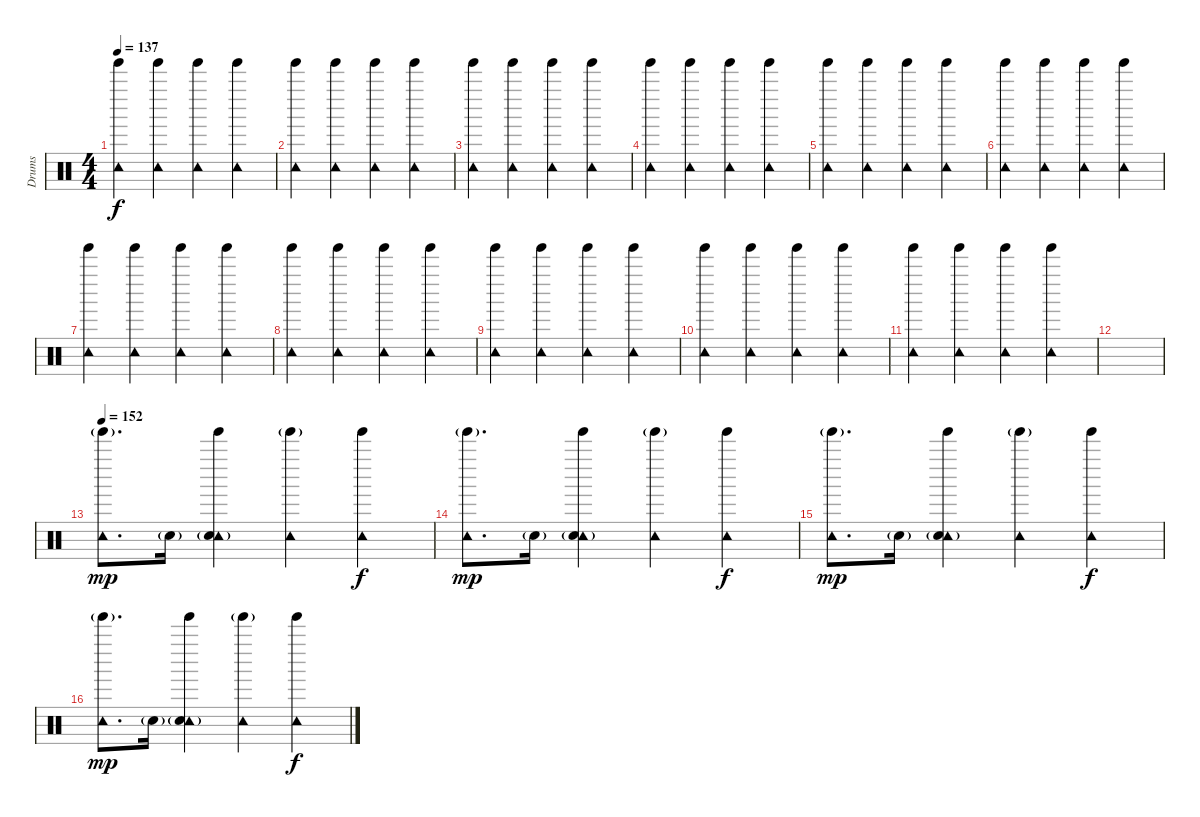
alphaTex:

\track ("Drums" "Drums") {instrument percussion}
\staff {score}
\articulation defaults
\ts (4 4)
\tempo 137
\clef neutral
\ks c
("Tambourine (hit)" "Tinkle Bell (hit)").4{dy f} ("Tambourine (hit)" "Tinkle Bell (hit)").4 ("Tambourine (hit)" "Tinkle Bell (hit)").4 ("Tambourine (hit)" "Tinkle Bell (hit)").4 |
("Tambourine (hit)" "Tinkle Bell (hit)").4 ("Tambourine (hit)" "Tinkle Bell (hit)").4 ("Tambourine (hit)" "Tinkle Bell (hit)").4 ("Tambourine (hit)" "Tinkle Bell (hit)").4 |
("Tambourine (hit)" "Tinkle Bell (hit)").4 ("Tambourine (hit)" "Tinkle Bell (hit)").4 ("Tambourine (hit)" "Tinkle Bell (hit)").4 ("Tambourine (hit)" "Tinkle Bell (hit)").4 |
("Tambourine (hit)" "Tinkle Bell (hit)").4 ("Tambourine (hit)" "Tinkle Bell (hit)").4 ("Tambourine (hit)" "Tinkle Bell (hit)").4 ("Tambourine (hit)" "Tinkle Bell (hit)").4 |
("Tambourine (hit)" "Tinkle Bell (hit)").4 ("Tambourine (hit)" "Tinkle Bell (hit)").4 ("Tambourine (hit)" "Tinkle Bell (hit)").4 ("Tambourine (hit)" "Tinkle Bell (hit)").4 |
("Tambourine (hit)" "Tinkle Bell (hit)").4 ("Tambourine (hit)" "Tinkle Bell (hit)").4 ("Tambourine (hit)" "Tinkle Bell (hit)").4 ("Tambourine (hit)" "Tinkle Bell (hit)").4 |
("Tambourine (hit)" "Tinkle Bell (hit)").4 ("Tambourine (hit)" "Tinkle Bell (hit)").4 ("Tambourine (hit)" "Tinkle Bell (hit)").4 ("Tambourine (hit)" "Tinkle Bell (hit)").4 |
("Tambourine (hit)" "Tinkle Bell (hit)").4 ("Tambourine (hit)" "Tinkle Bell (hit)").4 ("Tambourine (hit)" "Tinkle Bell (hit)").4 ("Tambourine (hit)" "Tinkle Bell (hit)").4 |
("Tambourine (hit)" "Tinkle Bell (hit)").4 ("Tambourine (hit)" "Tinkle Bell (hit)").4 ("Tambourine (hit)" "Tinkle Bell (hit)").4 ("Tambourine (hit)" "Tinkle Bell (hit)").4 |
("Tambourine (hit)" "Tinkle Bell (hit)").4 ("Tambourine (hit)" "Tinkle Bell (hit)").4 ("Tambourine (hit)" "Tinkle Bell (hit)").4 ("Tambourine (hit)" "Tinkle Bell (hit)").4 |
("Tambourine (hit)" "Tinkle Bell (hit)").4 ("Tambourine (hit)" "Tinkle Bell (hit)").4 ("Tambourine (hit)" "Tinkle Bell (hit)").4 ("Tambourine (hit)" "Tinkle Bell (hit)").4 |
|
\tempo 152
("Tambourine (hit)" "Tinkle Bell (hit)"{g}).8{d dy mp} "Snare (hit) 2"{g}.16 ("Tambourine (hit)" "Tinkle Bell (hit)" "Snare (hit) 2"{g}).4 ("Tambourine (hit)" "Tinkle Bell (hit)"{g}).4 ("Tambourine (hit)" "Tinkle Bell (hit)").4{dy f} |
("Tambourine (hit)" "Tinkle Bell (hit)"{g}).8{d dy mp} "Snare (hit) 2"{g}.16 ("Tambourine (hit)" "Tinkle Bell (hit)" "Snare (hit) 2"{g}).4 ("Tambourine (hit)" "Tinkle Bell (hit)"{g}).4 ("Tambourine (hit)" "Tinkle Bell (hit)").4{dy f} |
("Tambourine (hit)" "Tinkle Bell (hit)"{g}).8{d dy mp} "Snare (hit) 2"{g}.16 ("Tambourine (hit)" "Tinkle Bell (hit)" "Snare (hit) 2"{g}).4 ("Tambourine (hit)" "Tinkle Bell (hit)"{g}).4 ("Tambourine (hit)" "Tinkle Bell (hit)").4{dy f} |
("Tambourine (hit)" "Tinkle Bell (hit)"{g}).8{d dy mp} "Snare (hit) 2"{g}.16 ("Tambourine (hit)" "Tinkle Bell (hit)" "Snare (hit) 2"{g}).4 ("Tambourine (hit)" "Tinkle Bell (hit)"{g}).4 ("Tambourine (hit)" "Tinkle Bell (hit)").4{dy f}
